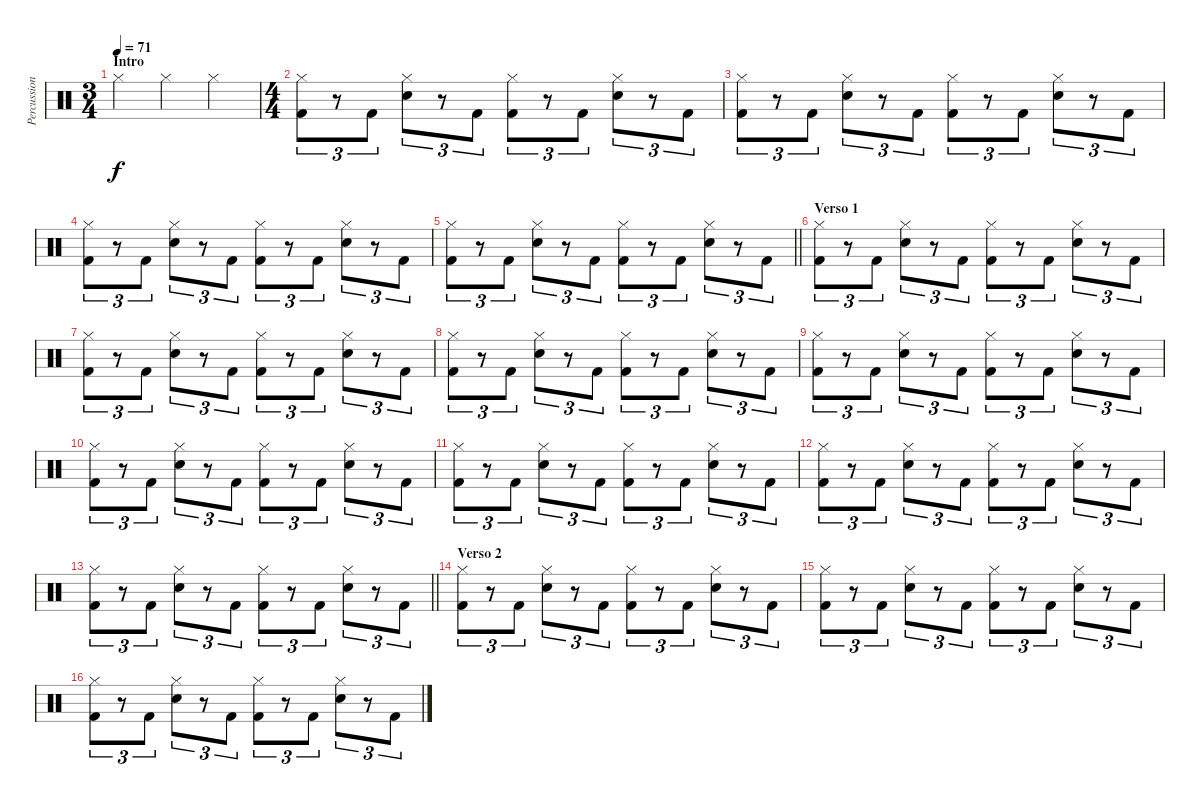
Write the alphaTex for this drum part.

\track ("Percussion" "Percussion") {instrument percussion}
\staff {score}
\articulation defaults
\ts (3 4)
\section ("" "Intro")
\tempo 71
\clef neutral
\ks c "Hi-Hat (closed)".4{dy f} "Hi-Hat (closed)".4 "Hi-Hat (closed)".4
|
\ts (4 4)
("Hi-Hat (closed)" "Kick (hit) 2").8{tu (3 2)} r.8{tu (3 2)} "Kick (hit) 2".8{tu (3 2)} ("Hi-Hat (closed)" "Snare (hit) 2").8{tu (3 2)} r.8{tu (3 2)} "Kick (hit) 2".8{tu (3 2)} ("Hi-Hat (closed)" "Kick (hit) 2").8{tu (3 2)} r.8{tu (3 2)} "Kick (hit) 2".8{tu (3 2)} ("Hi-Hat (closed)" "Snare (hit) 2").8{tu (3 2)} r.8{tu (3 2)} "Kick (hit) 2".8{tu (3 2)} |
("Hi-Hat (closed)" "Kick (hit) 2").8{tu (3 2)} r.8{tu (3 2)} "Kick (hit) 2".8{tu (3 2)} ("Hi-Hat (closed)" "Snare (hit) 2").8{tu (3 2)} r.8{tu (3 2)} "Kick (hit) 2".8{tu (3 2)} ("Hi-Hat (closed)" "Kick (hit) 2").8{tu (3 2)} r.8{tu (3 2)} "Kick (hit) 2".8{tu (3 2)} ("Hi-Hat (closed)" "Snare (hit) 2").8{tu (3 2)} r.8{tu (3 2)} "Kick (hit) 2".8{tu (3 2)} |
("Hi-Hat (closed)" "Kick (hit) 2").8{tu (3 2)} r.8{tu (3 2)} "Kick (hit) 2".8{tu (3 2)} ("Hi-Hat (closed)" "Snare (hit) 2").8{tu (3 2)} r.8{tu (3 2)} "Kick (hit) 2".8{tu (3 2)} ("Hi-Hat (closed)" "Kick (hit) 2").8{tu (3 2)} r.8{tu (3 2)} "Kick (hit) 2".8{tu (3 2)} ("Hi-Hat (closed)" "Snare (hit) 2").8{tu (3 2)} r.8{tu (3 2)} "Kick (hit) 2".8{tu (3 2)} |
\barLineRight lightlight
("Hi-Hat (closed)" "Kick (hit) 2").8{tu (3 2)} r.8{tu (3 2)} "Kick (hit) 2".8{tu (3 2)} ("Hi-Hat (closed)" "Snare (hit) 2").8{tu (3 2)} r.8{tu (3 2)} "Kick (hit) 2".8{tu (3 2)} ("Hi-Hat (closed)" "Kick (hit) 2").8{tu (3 2)} r.8{tu (3 2)} "Kick (hit) 2".8{tu (3 2)} ("Hi-Hat (closed)" "Snare (hit) 2").8{tu (3 2)} r.8{tu (3 2)} "Kick (hit) 2".8{tu (3 2)} |
\section ("" "Verso 1")
("Hi-Hat (closed)" "Kick (hit) 2").8{tu (3 2)} r.8{tu (3 2)} "Kick (hit) 2".8{tu (3 2)} ("Hi-Hat (closed)" "Snare (hit) 2").8{tu (3 2)} r.8{tu (3 2)} "Kick (hit) 2".8{tu (3 2)} ("Hi-Hat (closed)" "Kick (hit) 2").8{tu (3 2)} r.8{tu (3 2)} "Kick (hit) 2".8{tu (3 2)} ("Hi-Hat (closed)" "Snare (hit) 2").8{tu (3 2)} r.8{tu (3 2)} "Kick (hit) 2".8{tu (3 2)} |
("Hi-Hat (closed)" "Kick (hit) 2").8{tu (3 2)} r.8{tu (3 2)} "Kick (hit) 2".8{tu (3 2)} ("Hi-Hat (closed)" "Snare (hit) 2").8{tu (3 2)} r.8{tu (3 2)} "Kick (hit) 2".8{tu (3 2)} ("Hi-Hat (closed)" "Kick (hit) 2").8{tu (3 2)} r.8{tu (3 2)} "Kick (hit) 2".8{tu (3 2)} ("Hi-Hat (closed)" "Snare (hit) 2").8{tu (3 2)} r.8{tu (3 2)} "Kick (hit) 2".8{tu (3 2)} |
("Hi-Hat (closed)" "Kick (hit) 2").8{tu (3 2)} r.8{tu (3 2)} "Kick (hit) 2".8{tu (3 2)} ("Hi-Hat (closed)" "Snare (hit) 2").8{tu (3 2)} r.8{tu (3 2)} "Kick (hit) 2".8{tu (3 2)} ("Hi-Hat (closed)" "Kick (hit) 2").8{tu (3 2)} r.8{tu (3 2)} "Kick (hit) 2".8{tu (3 2)} ("Hi-Hat (closed)" "Snare (hit) 2").8{tu (3 2)} r.8{tu (3 2)} "Kick (hit) 2".8{tu (3 2)} |
("Hi-Hat (closed)" "Kick (hit) 2").8{tu (3 2)} r.8{tu (3 2)} "Kick (hit) 2".8{tu (3 2)} ("Hi-Hat (closed)" "Snare (hit) 2").8{tu (3 2)} r.8{tu (3 2)} "Kick (hit) 2".8{tu (3 2)} ("Hi-Hat (closed)" "Kick (hit) 2").8{tu (3 2)} r.8{tu (3 2)} "Kick (hit) 2".8{tu (3 2)} ("Hi-Hat (closed)" "Snare (hit) 2").8{tu (3 2)} r.8{tu (3 2)} "Kick (hit) 2".8{tu (3 2)} |
("Hi-Hat (closed)" "Kick (hit) 2").8{tu (3 2)} r.8{tu (3 2)} "Kick (hit) 2".8{tu (3 2)} ("Hi-Hat (closed)" "Snare (hit) 2").8{tu (3 2)} r.8{tu (3 2)} "Kick (hit) 2".8{tu (3 2)} ("Hi-Hat (closed)" "Kick (hit) 2").8{tu (3 2)} r.8{tu (3 2)} "Kick (hit) 2".8{tu (3 2)} ("Hi-Hat (closed)" "Snare (hit) 2").8{tu (3 2)} r.8{tu (3 2)} "Kick (hit) 2".8{tu (3 2)} |
("Hi-Hat (closed)" "Kick (hit) 2").8{tu (3 2)} r.8{tu (3 2)} "Kick (hit) 2".8{tu (3 2)} ("Hi-Hat (closed)" "Snare (hit) 2").8{tu (3 2)} r.8{tu (3 2)} "Kick (hit) 2".8{tu (3 2)} ("Hi-Hat (closed)" "Kick (hit) 2").8{tu (3 2)} r.8{tu (3 2)} "Kick (hit) 2".8{tu (3 2)} ("Hi-Hat (closed)" "Snare (hit) 2").8{tu (3 2)} r.8{tu (3 2)} "Kick (hit) 2".8{tu (3 2)} |
("Hi-Hat (closed)" "Kick (hit) 2").8{tu (3 2)} r.8{tu (3 2)} "Kick (hit) 2".8{tu (3 2)} ("Hi-Hat (closed)" "Snare (hit) 2").8{tu (3 2)} r.8{tu (3 2)} "Kick (hit) 2".8{tu (3 2)} ("Hi-Hat (closed)" "Kick (hit) 2").8{tu (3 2)} r.8{tu (3 2)} "Kick (hit) 2".8{tu (3 2)} ("Hi-Hat (closed)" "Snare (hit) 2").8{tu (3 2)} r.8{tu (3 2)} "Kick (hit) 2".8{tu (3 2)} |
\barLineRight lightlight
("Hi-Hat (closed)" "Kick (hit) 2").8{tu (3 2)} r.8{tu (3 2)} "Kick (hit) 2".8{tu (3 2)} ("Hi-Hat (closed)" "Snare (hit) 2").8{tu (3 2)} r.8{tu (3 2)} "Kick (hit) 2".8{tu (3 2)} ("Hi-Hat (closed)" "Kick (hit) 2").8{tu (3 2)} r.8{tu (3 2)} "Kick (hit) 2".8{tu (3 2)} ("Hi-Hat (closed)" "Snare (hit) 2").8{tu (3 2)} r.8{tu (3 2)} "Kick (hit) 2".8{tu (3 2)} |
\section ("" "Verso 2")
("Hi-Hat (closed)" "Kick (hit) 2").8{tu (3 2)} r.8{tu (3 2)} "Kick (hit) 2".8{tu (3 2)} ("Hi-Hat (closed)" "Snare (hit) 2").8{tu (3 2)} r.8{tu (3 2)} "Kick (hit) 2".8{tu (3 2)} ("Hi-Hat (closed)" "Kick (hit) 2").8{tu (3 2)} r.8{tu (3 2)} "Kick (hit) 2".8{tu (3 2)} ("Hi-Hat (closed)" "Snare (hit) 2").8{tu (3 2)} r.8{tu (3 2)} "Kick (hit) 2".8{tu (3 2)} |
("Hi-Hat (closed)" "Kick (hit) 2").8{tu (3 2)} r.8{tu (3 2)} "Kick (hit) 2".8{tu (3 2)} ("Hi-Hat (closed)" "Snare (hit) 2").8{tu (3 2)} r.8{tu (3 2)} "Kick (hit) 2".8{tu (3 2)} ("Hi-Hat (closed)" "Kick (hit) 2").8{tu (3 2)} r.8{tu (3 2)} "Kick (hit) 2".8{tu (3 2)} ("Hi-Hat (closed)" "Snare (hit) 2").8{tu (3 2)} r.8{tu (3 2)} "Kick (hit) 2".8{tu (3 2)} |
("Hi-Hat (closed)" "Kick (hit) 2").8{tu (3 2)} r.8{tu (3 2)} "Kick (hit) 2".8{tu (3 2)} ("Hi-Hat (closed)" "Snare (hit) 2").8{tu (3 2)} r.8{tu (3 2)} "Kick (hit) 2".8{tu (3 2)} ("Hi-Hat (closed)" "Kick (hit) 2").8{tu (3 2)} r.8{tu (3 2)} "Kick (hit) 2".8{tu (3 2)} ("Hi-Hat (closed)" "Snare (hit) 2").8{tu (3 2)} r.8{tu (3 2)} "Kick (hit) 2".8{tu (3 2)}
